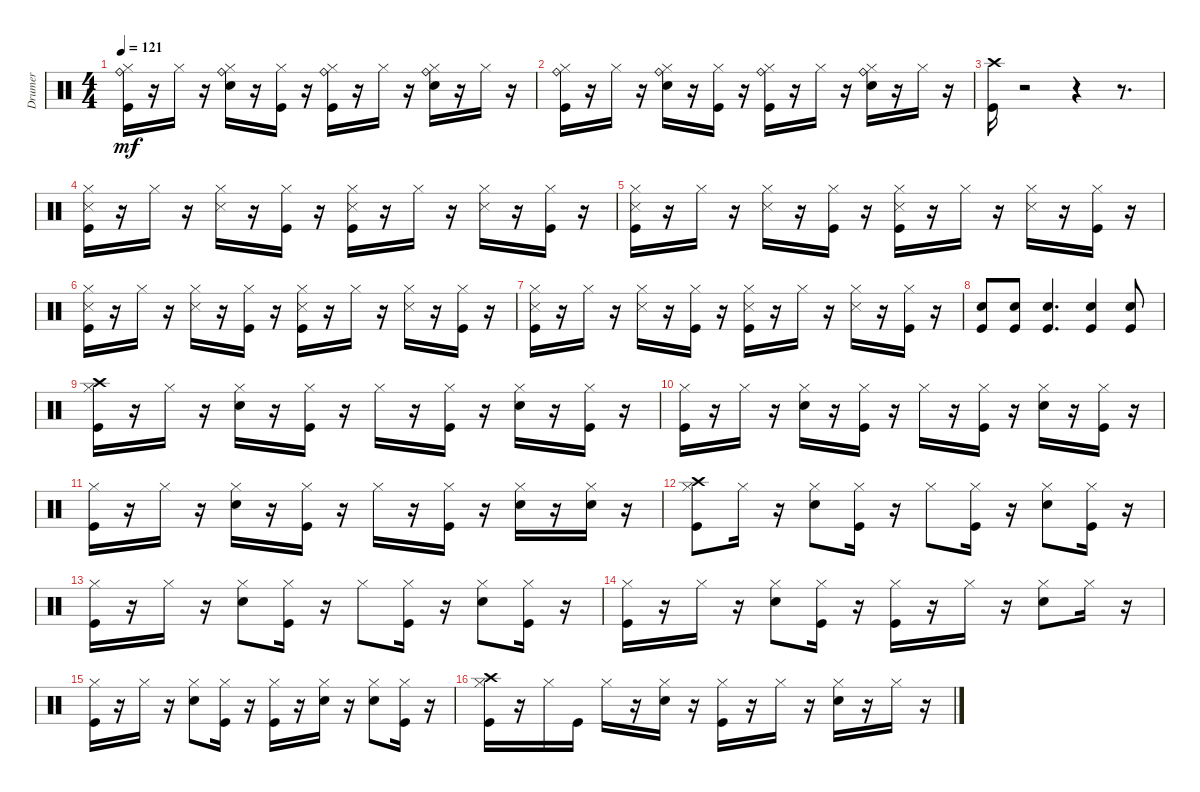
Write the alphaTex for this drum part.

\track ("Drumer" "Drumer") {instrument percussion}
\staff {score}
\articulation defaults
\ts (4 4)
\tempo 121
\clef neutral
\ks c
("Hi-Hat (closed)" "Ride (bell)" "Kick (hit)").16{dy mf} r.16 "Hi-Hat (closed)".16 r.16 ("Hi-Hat (closed)" "Ride (bell)" "Snare (hit) 2").16 r.16 ("Hi-Hat (closed)" "Kick (hit)").16 r.16 ("Hi-Hat (closed)" "Ride (bell)" "Kick (hit)").16 r.16 "Hi-Hat (closed)".16 r.16 ("Hi-Hat (closed)" "Ride (bell)" "Snare (hit) 2").16 r.16 "Hi-Hat (closed)".16 r.16 |
("Hi-Hat (closed)" "Ride (bell)" "Kick (hit)").16 r.16 "Hi-Hat (closed)".16 r.16 ("Hi-Hat (closed)" "Ride (bell)" "Snare (hit) 2").16 r.16 ("Hi-Hat (closed)" "Kick (hit)").16 r.16 ("Hi-Hat (closed)" "Ride (bell)" "Kick (hit)").16 r.16 "Hi-Hat (closed)".16 r.16 ("Hi-Hat (closed)" "Ride (bell)" "Snare (hit) 2").16 r.16 "Hi-Hat (closed)".16 r.16 |
("Crash high (hit)" "Kick (hit)").16 r.2 r.4 r.8{d} |
("Hi-Hat (closed)" "Snare (side stick) 3" "Kick (hit)").16 r.16 "Hi-Hat (closed)".16 r.16 ("Hi-Hat (closed)" "Snare (side stick) 3").16 r.16 ("Hi-Hat (closed)" "Kick (hit)").16 r.16 ("Hi-Hat (closed)" "Snare (side stick) 3" "Kick (hit)").16 r.16 "Hi-Hat (closed)".16 r.16 ("Hi-Hat (closed)" "Snare (side stick) 3").16 r.16 ("Hi-Hat (closed)" "Kick (hit)").16 r.16 |
("Hi-Hat (closed)" "Snare (side stick) 3" "Kick (hit)").16 r.16 "Hi-Hat (closed)".16 r.16 ("Hi-Hat (closed)" "Snare (side stick) 3").16 r.16 ("Hi-Hat (closed)" "Kick (hit)").16 r.16 ("Hi-Hat (closed)" "Snare (side stick) 3" "Kick (hit)").16 r.16 "Hi-Hat (closed)".16 r.16 ("Hi-Hat (closed)" "Snare (side stick) 3").16 r.16 ("Hi-Hat (closed)" "Kick (hit)").16 r.16 |
("Hi-Hat (closed)" "Snare (side stick) 3" "Kick (hit)").16 r.16 "Hi-Hat (closed)".16 r.16 ("Hi-Hat (closed)" "Snare (side stick) 3").16 r.16 ("Hi-Hat (closed)" "Kick (hit)").16 r.16 ("Hi-Hat (closed)" "Snare (side stick) 3" "Kick (hit)").16 r.16 "Hi-Hat (closed)".16 r.16 ("Hi-Hat (closed)" "Snare (side stick) 3").16 r.16 ("Hi-Hat (closed)" "Kick (hit)").16 r.16 |
("Hi-Hat (closed)" "Snare (side stick) 3" "Kick (hit)").16 r.16 "Hi-Hat (closed)".16 r.16 ("Hi-Hat (closed)" "Snare (side stick) 3").16 r.16 ("Hi-Hat (closed)" "Kick (hit)").16 r.16 ("Hi-Hat (closed)" "Snare (side stick) 3" "Kick (hit)").16 r.16 "Hi-Hat (closed)".16 r.16 ("Hi-Hat (closed)" "Snare (side stick) 3").16 r.16 ("Hi-Hat (closed)" "Kick (hit)").16 r.16 |
("Kick (hit)" "Snare (hit) 2").8 ("Snare (hit) 2" "Kick (hit)").8 ("Snare (hit) 2" "Kick (hit)").4{d} ("Snare (hit) 2" "Kick (hit)").4 ("Snare (hit) 2" "Kick (hit)").8 |
("Kick (hit)" "Hi-Hat (closed)" "Crash high (hit)").16 r.16 "Hi-Hat (closed)".16 r.16 ("Snare (hit) 2" "Hi-Hat (closed)").16 r.16 ("Kick (hit)" "Hi-Hat (closed)").16 r.16 "Hi-Hat (closed)".16 r.16 ("Kick (hit)" "Hi-Hat (closed)").16 r.16 ("Snare (hit) 2" "Hi-Hat (closed)").16 r.16 ("Kick (hit)" "Hi-Hat (closed)").16 r.16 |
("Kick (hit)" "Hi-Hat (closed)").16 r.16 "Hi-Hat (closed)".16 r.16 ("Snare (hit) 2" "Hi-Hat (closed)").16 r.16 ("Kick (hit)" "Hi-Hat (closed)").16 r.16 "Hi-Hat (closed)".16 r.16 ("Kick (hit)" "Hi-Hat (closed)").16 r.16 ("Snare (hit) 2" "Hi-Hat (closed)").16 r.16 ("Kick (hit)" "Hi-Hat (closed)").16 r.16 |
("Kick (hit)" "Hi-Hat (closed)").16 r.16 "Hi-Hat (closed)".16 r.16 ("Snare (hit) 2" "Hi-Hat (closed)").16 r.16 ("Kick (hit)" "Hi-Hat (closed)").16 r.16 "Hi-Hat (closed)".16 r.16 ("Kick (hit)" "Hi-Hat (closed)").16 r.16 ("Snare (hit) 2" "Hi-Hat (closed)").16 r.16 ("Snare (hit) 2" "Hi-Hat (closed)").16 r.16 |
("Hi-Hat (closed)" "Crash high (hit)" "Kick (hit)").8 "Hi-Hat (closed)".16 r.16 ("Hi-Hat (closed)" "Snare (hit) 2").8 ("Hi-Hat (closed)" "Kick (hit)").16 r.16 "Hi-Hat (closed)".8 ("Hi-Hat (closed)" "Kick (hit)").16 r.16 ("Hi-Hat (closed)" "Snare (hit) 2").8 ("Hi-Hat (closed)" "Kick (hit)").16 r.16 |
("Hi-Hat (closed)" "Kick (hit)").16 r.16 "Hi-Hat (closed)".16 r.16 ("Hi-Hat (closed)" "Snare (hit) 2").8 ("Hi-Hat (closed)" "Kick (hit)").16 r.16 "Hi-Hat (closed)".8 ("Hi-Hat (closed)" "Kick (hit)").16 r.16 ("Hi-Hat (closed)" "Snare (hit) 2").8 ("Hi-Hat (closed)" "Kick (hit)").16 r.16 |
("Hi-Hat (closed)" "Kick (hit)").16 r.16 "Hi-Hat (closed)".16 r.16 ("Hi-Hat (closed)" "Snare (hit) 2").8 ("Hi-Hat (closed)" "Kick (hit)").16 r.16 ("Hi-Hat (closed)" "Kick (hit)").16 r.16 "Hi-Hat (closed)".16 r.16 ("Hi-Hat (closed)" "Snare (hit) 2").8 "Hi-Hat (closed)".16 r.16 |
("Hi-Hat (closed)" "Kick (hit)").16 r.16 "Hi-Hat (closed)".16 r.16 ("Hi-Hat (closed)" "Snare (hit) 2").8 ("Hi-Hat (closed)" "Kick (hit)").16 r.16 ("Hi-Hat (closed)" "Kick (hit)").16 r.16 ("Hi-Hat (closed)" "Snare (hit) 2").16 r.16 ("Hi-Hat (closed)" "Snare (hit) 2").8 ("Hi-Hat (closed)" "Kick (hit)").16 r.16 |
("Hi-Hat (closed)" "Kick (hit)" "Crash high (hit)").16 r.16 "Hi-Hat (closed)".16 "Kick (hit)".16 "Hi-Hat (closed)".16 r.16 ("Hi-Hat (closed)" "Snare (hit) 2").16 r.16 ("Hi-Hat (closed)" "Kick (hit)").16 r.16 "Hi-Hat (closed)".16 r.16 ("Hi-Hat (closed)" "Snare (hit) 2").16 r.16 "Hi-Hat (closed)".16 r.16
